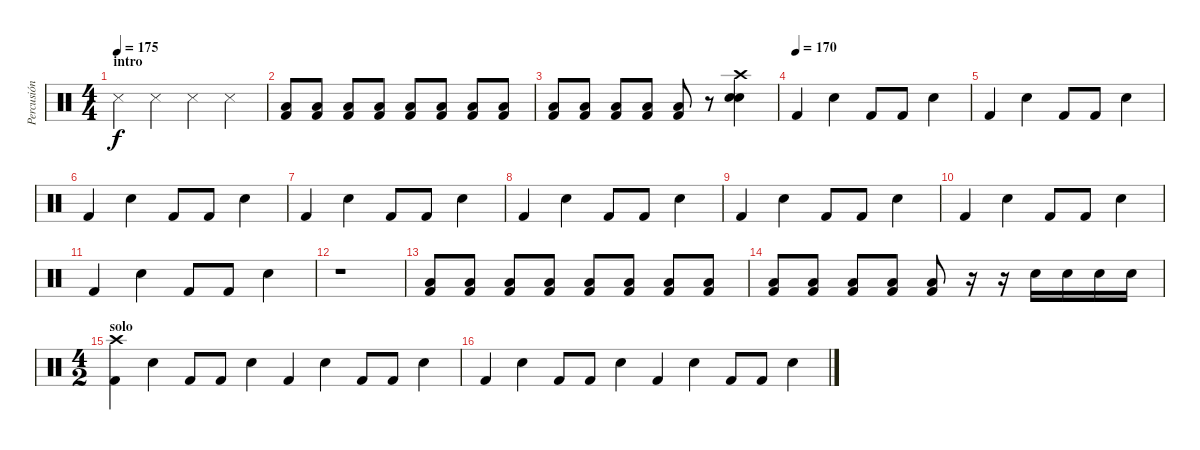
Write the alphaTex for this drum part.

\track ("Percusión" "Percusión") {instrument percussion}
\staff {score}
\articulation defaults
\ts (4 4)
\section ("" "intro")
\tempo 175
\clef neutral
\ks c "Snare (side stick) 3".4{dy f} "Snare (side stick) 3".4 "Snare (side stick) 3".4 "Snare (side stick) 3".4
|
("Kick (hit) 2" "Low Tom (hit)").8 ("Kick (hit) 2" "Low Tom (hit)").8 ("Kick (hit) 2" "Low Tom (hit)").8 ("Kick (hit) 2" "Low Tom (hit)").8 ("Kick (hit) 2" "Low Tom (hit)").8 ("Kick (hit) 2" "Low Tom (hit)").8 ("Kick (hit) 2" "Low Tom (hit)").8 ("Kick (hit) 2" "Low Tom (hit)").8 |
("Kick (hit) 2" "Low Tom (hit)").8 ("Kick (hit) 2" "Low Tom (hit)").8 ("Kick (hit) 2" "Low Tom (hit)").8 ("Kick (hit) 2" "Low Tom (hit)").8 ("Kick (hit) 2" "Low Tom (hit)").8 r.8 ("Crash high (hit)" "Snare (hit) 2" "Snare (hit) 2").4 |
\tempo (170)
"Kick (hit) 2".4 "Snare (hit) 2".4 "Kick (hit) 2".8 "Kick (hit) 2".8 "Snare (hit) 2".4 |
"Kick (hit) 2".4 "Snare (hit) 2".4 "Kick (hit) 2".8 "Kick (hit) 2".8 "Snare (hit) 2".4 |
"Kick (hit) 2".4 "Snare (hit) 2".4 "Kick (hit) 2".8 "Kick (hit) 2".8 "Snare (hit) 2".4 |
"Kick (hit) 2".4 "Snare (hit) 2".4 "Kick (hit) 2".8 "Kick (hit) 2".8 "Snare (hit) 2".4 |
"Kick (hit) 2".4 "Snare (hit) 2".4 "Kick (hit) 2".8 "Kick (hit) 2".8 "Snare (hit) 2".4 |
"Kick (hit) 2".4 "Snare (hit) 2".4 "Kick (hit) 2".8 "Kick (hit) 2".8 "Snare (hit) 2".4 |
"Kick (hit) 2".4 "Snare (hit) 2".4 "Kick (hit) 2".8 "Kick (hit) 2".8 "Snare (hit) 2".4 |
"Kick (hit) 2".4 "Snare (hit) 2".4 "Kick (hit) 2".8 "Kick (hit) 2".8 "Snare (hit) 2".4 |
r.1 |
("Kick (hit) 2" "Low Tom (hit)").8 ("Kick (hit) 2" "Low Tom (hit)").8 ("Kick (hit) 2" "Low Tom (hit)").8 ("Kick (hit) 2" "Low Tom (hit)").8 ("Kick (hit) 2" "Low Tom (hit)").8 ("Kick (hit) 2" "Low Tom (hit)").8 ("Kick (hit) 2" "Low Tom (hit)").8 ("Kick (hit) 2" "Low Tom (hit)").8 |
("Kick (hit) 2" "Low Tom (hit)").8 ("Kick (hit) 2" "Low Tom (hit)").8 ("Kick (hit) 2" "Low Tom (hit)").8 ("Kick (hit) 2" "Low Tom (hit)").8 ("Kick (hit) 2" "Low Tom (hit)").8 r.16 r.16 "Snare (hit) 2".16 "Snare (hit) 2".16 "Snare (hit) 2".16 "Snare (hit) 2".16 |
\ts (4 2)
\section ("" "solo")
("Kick (hit) 2" "Crash high (hit)").4 "Snare (hit) 2".4 "Kick (hit) 2".8 "Kick (hit) 2".8 "Snare (hit) 2".4 "Kick (hit) 2".4 "Snare (hit) 2".4 "Kick (hit) 2".8 "Kick (hit) 2".8 "Snare (hit) 2".4 |
"Kick (hit) 2".4 "Snare (hit) 2".4 "Kick (hit) 2".8 "Kick (hit) 2".8 "Snare (hit) 2".4 "Kick (hit) 2".4 "Snare (hit) 2".4 "Kick (hit) 2".8 "Kick (hit) 2".8 "Snare (hit) 2".4
